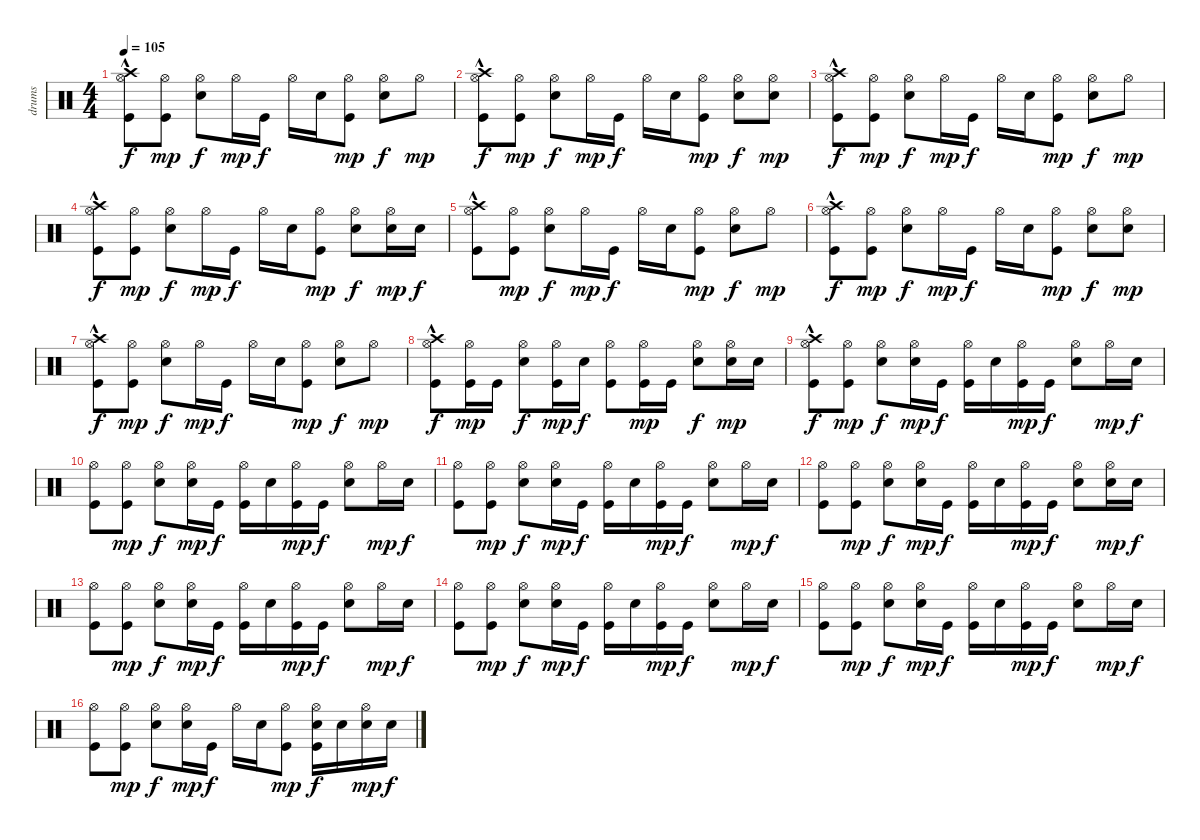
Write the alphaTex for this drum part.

\track ("drums" "drums") {instrument percussion}
\staff {score}
\articulation defaults
\ts (4 4)
\tempo 105
\clef neutral
\ks c
("Kick (hit)" "Crash high (hit)"{hac} "Hi-Hat (open)").8{dy f} ("Kick (hit)" "Hi-Hat (open)").8{dy mp} ("Snare (hit) 2" "Hi-Hat (open)").8{dy f} "Hi-Hat (open)".16{dy mp} "Kick (hit)".16{dy f} "Hi-Hat (open)".16 "Snare (hit) 2".16 ("Kick (hit)" "Hi-Hat (open)").8{dy mp} ("Snare (hit) 2" "Hi-Hat (open)").8{dy f} "Hi-Hat (open)".8{dy mp} |
("Hi-Hat (open)" "Crash high (hit)"{hac} "Kick (hit)").8{dy f} ("Kick (hit)" "Hi-Hat (open)").8{dy mp} ("Snare (hit) 2" "Hi-Hat (open)").8{dy f} "Hi-Hat (open)".16{dy mp} "Kick (hit)".16{dy f} "Hi-Hat (open)".16 "Snare (hit) 2".16 ("Kick (hit)" "Hi-Hat (open)").8{dy mp} ("Snare (hit) 2" "Hi-Hat (open)").8{dy f} ("Hi-Hat (open)" "Snare (hit) 2").8{dy mp} |
("Hi-Hat (open)" "Crash high (hit)"{hac} "Kick (hit)").8{dy f} ("Kick (hit)" "Hi-Hat (open)").8{dy mp} ("Snare (hit) 2" "Hi-Hat (open)").8{dy f} "Hi-Hat (open)".16{dy mp} "Kick (hit)".16{dy f} "Hi-Hat (open)".16 "Snare (hit) 2".16 ("Kick (hit)" "Hi-Hat (open)").8{dy mp} ("Snare (hit) 2" "Hi-Hat (open)").8{dy f} "Hi-Hat (open)".8{dy mp} |
("Hi-Hat (open)" "Crash high (hit)"{hac} "Kick (hit)").8{dy f} ("Kick (hit)" "Hi-Hat (open)").8{dy mp} ("Snare (hit) 2" "Hi-Hat (open)").8{dy f} "Hi-Hat (open)".16{dy mp} "Kick (hit)".16{dy f} "Hi-Hat (open)".16 "Snare (hit) 2".16 ("Kick (hit)" "Hi-Hat (open)").8{dy mp} ("Snare (hit) 2" "Hi-Hat (open)").8{dy f} ("Hi-Hat (open)" "Snare (hit) 2").16{dy mp} "Snare (hit) 2".16{dy f} |
("Hi-Hat (open)" "Crash high (hit)"{hac} "Kick (hit)").8 ("Kick (hit)" "Hi-Hat (open)").8{dy mp} ("Snare (hit) 2" "Hi-Hat (open)").8{dy f} "Hi-Hat (open)".16{dy mp} "Kick (hit)".16{dy f} "Hi-Hat (open)".16 "Snare (hit) 2".16 ("Kick (hit)" "Hi-Hat (open)").8{dy mp} ("Snare (hit) 2" "Hi-Hat (open)").8{dy f} "Hi-Hat (open)".8{dy mp} |
("Hi-Hat (open)" "Crash high (hit)"{hac} "Kick (hit)").8{dy f} ("Kick (hit)" "Hi-Hat (open)").8{dy mp} ("Snare (hit) 2" "Hi-Hat (open)").8{dy f} "Hi-Hat (open)".16{dy mp} "Kick (hit)".16{dy f} "Hi-Hat (open)".16 "Snare (hit) 2".16 ("Kick (hit)" "Hi-Hat (open)").8{dy mp} ("Snare (hit) 2" "Hi-Hat (open)").8{dy f} ("Hi-Hat (open)" "Snare (hit) 2").8{dy mp} |
("Hi-Hat (open)" "Crash high (hit)"{hac} "Kick (hit)").8{dy f} ("Kick (hit)" "Hi-Hat (open)").8{dy mp} ("Snare (hit) 2" "Hi-Hat (open)").8{dy f} "Hi-Hat (open)".16{dy mp} "Kick (hit)".16{dy f} "Hi-Hat (open)".16 "Snare (hit) 2".16 ("Kick (hit)" "Hi-Hat (open)").8{dy mp} ("Snare (hit) 2" "Hi-Hat (open)").8{dy f} "Hi-Hat (open)".8{dy mp} |
("Hi-Hat (open)" "Crash high (hit)"{hac} "Kick (hit)").8{dy f} ("Kick (hit)" "Hi-Hat (open)").16{dy mp} "Kick (hit)".16 ("Snare (hit) 2" "Hi-Hat (open)").8{dy f} ("Hi-Hat (open)" "Kick (hit)").16{dy mp} "Snare (hit) 2".16{dy f} ("Hi-Hat (open)" "Kick (hit)").8 ("Kick (hit)" "Hi-Hat (open)").16{dy mp} "Kick (hit)".16 ("Snare (hit) 2" "Hi-Hat (open)").8{dy f} ("Hi-Hat (open)" "Snare (hit) 2").16{dy mp} "Snare (hit) 2".16 |
("Kick (hit)" "Crash high (hit)"{hac} "Hi-Hat (open)").8{dy f} ("Kick (hit)" "Hi-Hat (open)").8{dy mp} ("Snare (hit) 2" "Hi-Hat (open)").8{dy f} ("Snare (hit) 2" "Hi-Hat (open)").16{dy mp} "Kick (hit)".16{dy f} ("Kick (hit)" "Hi-Hat (open)").16 "Snare (hit) 2".16 ("Kick (hit)" "Hi-Hat (open)").16{dy mp} "Kick (hit)".16{dy f} ("Snare (hit) 2" "Hi-Hat (open)").8 "Hi-Hat (open)".16{dy mp} "Snare (hit) 2".16{dy f} |
("Hi-Hat (open)" "Kick (hit)").8 ("Kick (hit)" "Hi-Hat (open)").8{dy mp} ("Snare (hit) 2" "Hi-Hat (open)").8{dy f} ("Snare (hit) 2" "Hi-Hat (open)").16{dy mp} "Kick (hit)".16{dy f} ("Kick (hit)" "Hi-Hat (open)").16 "Snare (hit) 2".16 ("Kick (hit)" "Hi-Hat (open)").16{dy mp} "Kick (hit)".16{dy f} ("Snare (hit) 2" "Hi-Hat (open)").8 "Hi-Hat (open)".16{dy mp} "Snare (hit) 2".16{dy f} |
("Hi-Hat (open)" "Kick (hit)").8 ("Kick (hit)" "Hi-Hat (open)").8{dy mp} ("Snare (hit) 2" "Hi-Hat (open)").8{dy f} ("Snare (hit) 2" "Hi-Hat (open)").16{dy mp} "Kick (hit)".16{dy f} ("Kick (hit)" "Hi-Hat (open)").16 "Snare (hit) 2".16 ("Kick (hit)" "Hi-Hat (open)").16{dy mp} "Kick (hit)".16{dy f} ("Snare (hit) 2" "Hi-Hat (open)").8 "Hi-Hat (open)".16{dy mp} "Snare (hit) 2".16{dy f} |
("Hi-Hat (open)" "Kick (hit)").8 ("Kick (hit)" "Hi-Hat (open)").8{dy mp} ("Snare (hit) 2" "Hi-Hat (open)").8{dy f} ("Snare (hit) 2" "Hi-Hat (open)").16{dy mp} "Kick (hit)".16{dy f} ("Kick (hit)" "Hi-Hat (open)").16 "Snare (hit) 2".16 ("Kick (hit)" "Hi-Hat (open)").16{dy mp} "Kick (hit)".16{dy f} ("Snare (hit) 2" "Hi-Hat (open)").8 ("Hi-Hat (open)" "Snare (hit) 2").16{dy mp} "Snare (hit) 2".16{dy f} |
("Kick (hit)" "Hi-Hat (open)").8 ("Kick (hit)" "Hi-Hat (open)").8{dy mp} ("Snare (hit) 2" "Hi-Hat (open)").8{dy f} ("Snare (hit) 2" "Hi-Hat (open)").16{dy mp} "Kick (hit)".16{dy f} ("Kick (hit)" "Hi-Hat (open)").16 "Snare (hit) 2".16 ("Kick (hit)" "Hi-Hat (open)").16{dy mp} "Kick (hit)".16{dy f} ("Snare (hit) 2" "Hi-Hat (open)").8 "Hi-Hat (open)".16{dy mp} "Snare (hit) 2".16{dy f} |
("Hi-Hat (open)" "Kick (hit)").8 ("Kick (hit)" "Hi-Hat (open)").8{dy mp} ("Snare (hit) 2" "Hi-Hat (open)").8{dy f} ("Snare (hit) 2" "Hi-Hat (open)").16{dy mp} "Kick (hit)".16{dy f} ("Kick (hit)" "Hi-Hat (open)").16 "Snare (hit) 2".16 ("Kick (hit)" "Hi-Hat (open)").16{dy mp} "Kick (hit)".16{dy f} ("Snare (hit) 2" "Hi-Hat (open)").8 "Hi-Hat (open)".16{dy mp} "Snare (hit) 2".16{dy f} |
("Hi-Hat (open)" "Kick (hit)").8 ("Kick (hit)" "Hi-Hat (open)").8{dy mp} ("Snare (hit) 2" "Hi-Hat (open)").8{dy f} ("Snare (hit) 2" "Hi-Hat (open)").16{dy mp} "Kick (hit)".16{dy f} ("Kick (hit)" "Hi-Hat (open)").16 "Snare (hit) 2".16 ("Kick (hit)" "Hi-Hat (open)").16{dy mp} "Kick (hit)".16{dy f} ("Snare (hit) 2" "Hi-Hat (open)").8 "Hi-Hat (open)".16{dy mp} "Snare (hit) 2".16{dy f} |
("Hi-Hat (open)" "Kick (hit)").8 ("Kick (hit)" "Hi-Hat (open)").8{dy mp} ("Snare (hit) 2" "Hi-Hat (open)").8{dy f} ("Snare (hit) 2" "Hi-Hat (open)").16{dy mp} "Kick (hit)".16{dy f} "Hi-Hat (open)".16 "Snare (hit) 2".16 ("Kick (hit)" "Hi-Hat (open)").8{dy mp} ("Hi-Hat (open)" "Kick (hit)" "Snare (hit) 2").16{dy f} "Snare (hit) 2".16 ("Hi-Hat (open)" "Snare (hit) 2").16{dy mp} "Snare (hit) 2".16{dy f}
